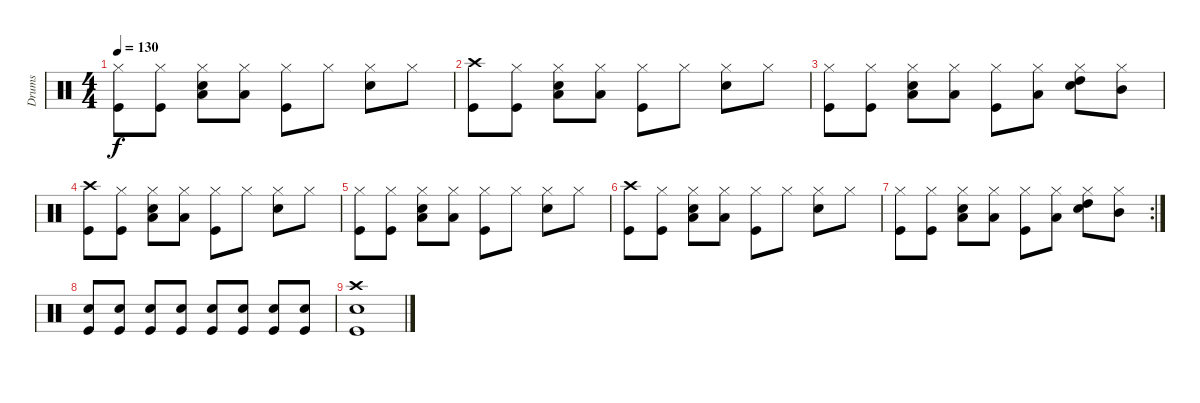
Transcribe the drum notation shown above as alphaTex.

\track ("Drums" "Drums") {instrument percussion}
\staff {score}
\articulation defaults
\ts (4 4)
\tempo 130
\clef neutral
\ks c
("Hi-Hat (closed)" "Kick (hit)").8{dy f} ("Hi-Hat (closed)" "Kick (hit)").8 ("Low Tom (hit)" "Hi-Hat (closed)" "Snare (hit) 2").8 ("Low Tom (hit)" "Hi-Hat (closed)").8 ("Hi-Hat (closed)" "Kick (hit)").8 "Hi-Hat (closed)".8 ("Hi-Hat (closed)" "Snare (hit) 2").8 "Hi-Hat (closed)".8 |
("Crash high (hit)" "Kick (hit)").8 ("Hi-Hat (closed)" "Kick (hit)").8 ("Low Tom (hit)" "Hi-Hat (closed)" "Snare (hit) 2").8 ("Low Tom (hit)" "Hi-Hat (closed)").8 ("Hi-Hat (closed)" "Kick (hit)").8 "Hi-Hat (closed)".8 ("Hi-Hat (closed)" "Snare (hit) 2").8 "Hi-Hat (closed)".8 |
("Hi-Hat (closed)" "Kick (hit)").8 ("Hi-Hat (closed)" "Kick (hit)").8 ("Low Tom (hit)" "Hi-Hat (closed)" "Snare (hit) 2").8 ("Low Tom (hit)" "Hi-Hat (closed)").8 ("Hi-Hat (closed)" "Kick (hit)").8 ("Low Tom (hit)" "Hi-Hat (closed)").8 ("High Tom (hit)" "Hi-Hat (closed)" "Snare (hit) 2").8 ("Mid Tom (hit)" "Hi-Hat (closed)").8 |
("Crash high (hit)" "Kick (hit)").8 ("Hi-Hat (closed)" "Kick (hit)").8 ("Low Tom (hit)" "Hi-Hat (closed)" "Snare (hit) 2").8 ("Low Tom (hit)" "Hi-Hat (closed)").8 ("Hi-Hat (closed)" "Kick (hit)").8 "Hi-Hat (closed)".8 ("Hi-Hat (closed)" "Snare (hit) 2").8 "Hi-Hat (closed)".8 |
("Hi-Hat (closed)" "Kick (hit)").8 ("Hi-Hat (closed)" "Kick (hit)").8 ("Low Tom (hit)" "Hi-Hat (closed)" "Snare (hit) 2").8 ("Low Tom (hit)" "Hi-Hat (closed)").8 ("Hi-Hat (closed)" "Kick (hit)").8 "Hi-Hat (closed)".8 ("Hi-Hat (closed)" "Snare (hit) 2").8 "Hi-Hat (closed)".8 |
("Crash high (hit)" "Kick (hit)").8 ("Hi-Hat (closed)" "Kick (hit)").8 ("Low Tom (hit)" "Hi-Hat (closed)" "Snare (hit) 2").8 ("Low Tom (hit)" "Hi-Hat (closed)").8 ("Hi-Hat (closed)" "Kick (hit)").8 "Hi-Hat (closed)".8 ("Hi-Hat (closed)" "Snare (hit) 2").8 "Hi-Hat (closed)".8 |
\rc 2
("Hi-Hat (closed)" "Kick (hit)").8 ("Hi-Hat (closed)" "Kick (hit)").8 ("Low Tom (hit)" "Hi-Hat (closed)" "Snare (hit) 2").8 ("Low Tom (hit)" "Hi-Hat (closed)").8 ("Hi-Hat (closed)" "Kick (hit)").8 ("Low Tom (hit)" "Hi-Hat (closed)").8 ("High Tom (hit)" "Hi-Hat (closed)" "Snare (hit) 2").8 ("Mid Tom (hit)" "Hi-Hat (closed)").8 |
("Snare (hit) 2" "Kick (hit)").8 ("Snare (hit) 2" "Kick (hit)").8 ("Snare (hit) 2" "Kick (hit)").8 ("Snare (hit) 2" "Kick (hit)").8 ("Snare (hit) 2" "Kick (hit)").8 ("Snare (hit) 2" "Kick (hit)").8 ("Snare (hit) 2" "Kick (hit)").8 ("Snare (hit) 2" "Kick (hit)").8 |
("Crash high (hit)" "Snare (hit) 2" "Kick (hit)").1
